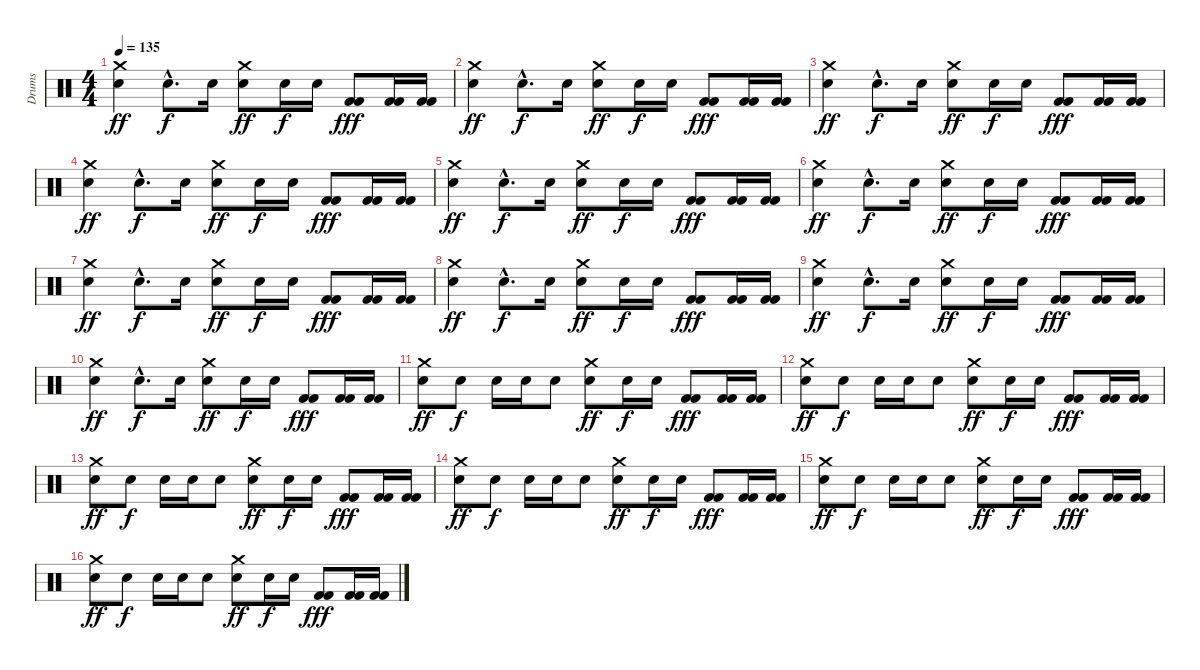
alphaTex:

\track ("Drums" "Drums") {instrument percussion}
\staff {score}
\articulation defaults
\ts (4 4)
\tempo 135
\clef neutral
\ks c
("Crash medium (hit)" "Snare (hit) 2").4{dy ff} "Snare (hit) 2"{hac}.8{d dy f} "Snare (hit) 2".16 ("Snare (hit) 2" "Crash medium (hit)").8{dy ff} "Snare (hit) 2".16{dy f} "Snare (hit) 2".16 ("Kick (hit) 2" "Kick (hit) 2").8{dy fff} ("Kick (hit) 2" "Kick (hit) 2").16 ("Kick (hit) 2" "Kick (hit) 2").16 |
("Crash medium (hit)" "Snare (hit) 2").4{dy ff} "Snare (hit) 2"{hac}.8{d dy f} "Snare (hit) 2".16 ("Snare (hit) 2" "Crash medium (hit)").8{dy ff} "Snare (hit) 2".16{dy f} "Snare (hit) 2".16 ("Kick (hit) 2" "Kick (hit) 2").8{dy fff} ("Kick (hit) 2" "Kick (hit) 2").16 ("Kick (hit) 2" "Kick (hit) 2").16 |
("Crash medium (hit)" "Snare (hit) 2").4{dy ff} "Snare (hit) 2"{hac}.8{d dy f} "Snare (hit) 2".16 ("Snare (hit) 2" "Crash medium (hit)").8{dy ff} "Snare (hit) 2".16{dy f} "Snare (hit) 2".16 ("Kick (hit) 2" "Kick (hit) 2").8{dy fff} ("Kick (hit) 2" "Kick (hit) 2").16 ("Kick (hit) 2" "Kick (hit) 2").16 |
("Crash medium (hit)" "Snare (hit) 2").4{dy ff} "Snare (hit) 2"{hac}.8{d dy f} "Snare (hit) 2".16 ("Snare (hit) 2" "Crash medium (hit)").8{dy ff} "Snare (hit) 2".16{dy f} "Snare (hit) 2".16 ("Kick (hit) 2" "Kick (hit) 2").8{dy fff} ("Kick (hit) 2" "Kick (hit) 2").16 ("Kick (hit) 2" "Kick (hit) 2").16 |
("Crash medium (hit)" "Snare (hit) 2").4{dy ff} "Snare (hit) 2"{hac}.8{d dy f} "Snare (hit) 2".16 ("Snare (hit) 2" "Crash medium (hit)").8{dy ff} "Snare (hit) 2".16{dy f} "Snare (hit) 2".16 ("Kick (hit) 2" "Kick (hit) 2").8{dy fff} ("Kick (hit) 2" "Kick (hit) 2").16 ("Kick (hit) 2" "Kick (hit) 2").16 |
("Crash medium (hit)" "Snare (hit) 2").4{dy ff} "Snare (hit) 2"{hac}.8{d dy f} "Snare (hit) 2".16 ("Snare (hit) 2" "Crash medium (hit)").8{dy ff} "Snare (hit) 2".16{dy f} "Snare (hit) 2".16 ("Kick (hit) 2" "Kick (hit) 2").8{dy fff} ("Kick (hit) 2" "Kick (hit) 2").16 ("Kick (hit) 2" "Kick (hit) 2").16 |
("Crash medium (hit)" "Snare (hit) 2").4{dy ff} "Snare (hit) 2"{hac}.8{d dy f} "Snare (hit) 2".16 ("Snare (hit) 2" "Crash medium (hit)").8{dy ff} "Snare (hit) 2".16{dy f} "Snare (hit) 2".16 ("Kick (hit) 2" "Kick (hit) 2").8{dy fff} ("Kick (hit) 2" "Kick (hit) 2").16 ("Kick (hit) 2" "Kick (hit) 2").16 |
("Crash medium (hit)" "Snare (hit) 2").4{dy ff} "Snare (hit) 2"{hac}.8{d dy f} "Snare (hit) 2".16 ("Snare (hit) 2" "Crash medium (hit)").8{dy ff} "Snare (hit) 2".16{dy f} "Snare (hit) 2".16 ("Kick (hit) 2" "Kick (hit) 2").8{dy fff} ("Kick (hit) 2" "Kick (hit) 2").16 ("Kick (hit) 2" "Kick (hit) 2").16 |
("Crash medium (hit)" "Snare (hit) 2").4{dy ff} "Snare (hit) 2"{hac}.8{d dy f} "Snare (hit) 2".16 ("Snare (hit) 2" "Crash medium (hit)").8{dy ff} "Snare (hit) 2".16{dy f} "Snare (hit) 2".16 ("Kick (hit) 2" "Kick (hit) 2").8{dy fff} ("Kick (hit) 2" "Kick (hit) 2").16 ("Kick (hit) 2" "Kick (hit) 2").16 |
("Crash medium (hit)" "Snare (hit) 2").4{dy ff} "Snare (hit) 2"{hac}.8{d dy f} "Snare (hit) 2".16 ("Snare (hit) 2" "Crash medium (hit)").8{dy ff} "Snare (hit) 2".16{dy f} "Snare (hit) 2".16 ("Kick (hit) 2" "Kick (hit) 2").8{dy fff} ("Kick (hit) 2" "Kick (hit) 2").16 ("Kick (hit) 2" "Kick (hit) 2").16 |
("Crash medium (hit)" "Snare (hit) 2").8{dy ff} "Snare (hit) 2".8{dy f} "Snare (hit) 2".16 "Snare (hit) 2".16 "Snare (hit) 2".8 ("Snare (hit) 2" "Crash medium (hit)").8{dy ff} "Snare (hit) 2".16{dy f} "Snare (hit) 2".16 ("Kick (hit) 2" "Kick (hit) 2").8{dy fff} ("Kick (hit) 2" "Kick (hit) 2").16 ("Kick (hit) 2" "Kick (hit) 2").16 |
("Crash medium (hit)" "Snare (hit) 2").8{dy ff} "Snare (hit) 2".8{dy f} "Snare (hit) 2".16 "Snare (hit) 2".16 "Snare (hit) 2".8 ("Snare (hit) 2" "Crash medium (hit)").8{dy ff} "Snare (hit) 2".16{dy f} "Snare (hit) 2".16 ("Kick (hit) 2" "Kick (hit) 2").8{dy fff} ("Kick (hit) 2" "Kick (hit) 2").16 ("Kick (hit) 2" "Kick (hit) 2").16 |
("Crash medium (hit)" "Snare (hit) 2").8{dy ff} "Snare (hit) 2".8{dy f} "Snare (hit) 2".16 "Snare (hit) 2".16 "Snare (hit) 2".8 ("Snare (hit) 2" "Crash medium (hit)").8{dy ff} "Snare (hit) 2".16{dy f} "Snare (hit) 2".16 ("Kick (hit) 2" "Kick (hit) 2").8{dy fff} ("Kick (hit) 2" "Kick (hit) 2").16 ("Kick (hit) 2" "Kick (hit) 2").16 |
("Crash medium (hit)" "Snare (hit) 2").8{dy ff} "Snare (hit) 2".8{dy f} "Snare (hit) 2".16 "Snare (hit) 2".16 "Snare (hit) 2".8 ("Snare (hit) 2" "Crash medium (hit)").8{dy ff} "Snare (hit) 2".16{dy f} "Snare (hit) 2".16 ("Kick (hit) 2" "Kick (hit) 2").8{dy fff} ("Kick (hit) 2" "Kick (hit) 2").16 ("Kick (hit) 2" "Kick (hit) 2").16 |
("Crash medium (hit)" "Snare (hit) 2").8{dy ff} "Snare (hit) 2".8{dy f} "Snare (hit) 2".16 "Snare (hit) 2".16 "Snare (hit) 2".8 ("Snare (hit) 2" "Crash medium (hit)").8{dy ff} "Snare (hit) 2".16{dy f} "Snare (hit) 2".16 ("Kick (hit) 2" "Kick (hit) 2").8{dy fff} ("Kick (hit) 2" "Kick (hit) 2").16 ("Kick (hit) 2" "Kick (hit) 2").16 |
("Crash medium (hit)" "Snare (hit) 2").8{dy ff} "Snare (hit) 2".8{dy f} "Snare (hit) 2".16 "Snare (hit) 2".16 "Snare (hit) 2".8 ("Snare (hit) 2" "Crash medium (hit)").8{dy ff} "Snare (hit) 2".16{dy f} "Snare (hit) 2".16 ("Kick (hit) 2" "Kick (hit) 2").8{dy fff} ("Kick (hit) 2" "Kick (hit) 2").16 ("Kick (hit) 2" "Kick (hit) 2").16
